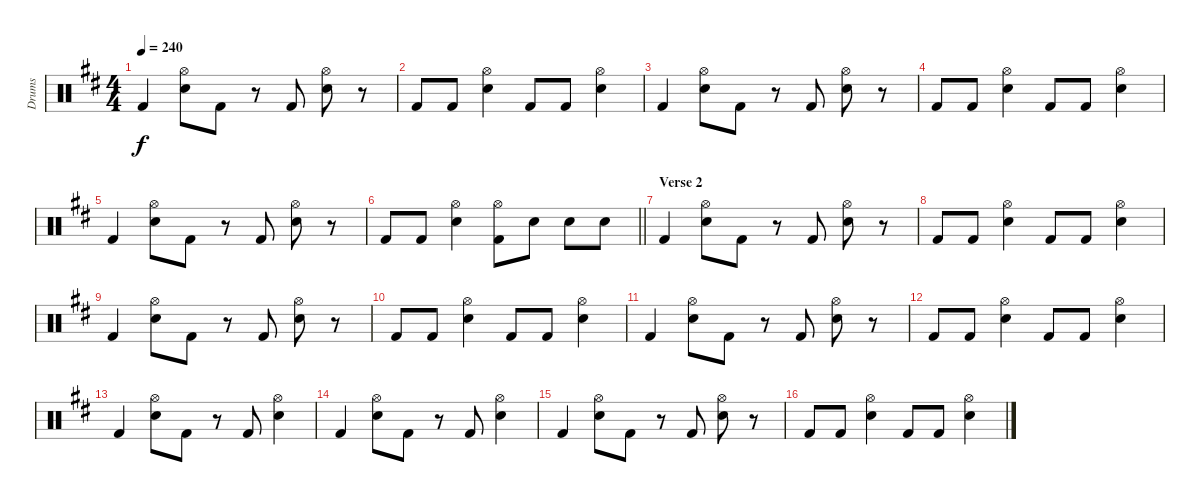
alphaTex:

\track ("Drums" "Drums") {instrument percussion}
\staff {score}
\articulation defaults
\ts (4 4)
\tempo 240
\clef neutral
\ks d "Kick (hit) 2".4{dy f}
("Hi-Hat (open)" "Electric Snare (hit)").8 "Kick (hit) 2".8 r.8 "Kick (hit) 2".8 ("Hi-Hat (open)" "Electric Snare (hit)").8 r.8 |
"Kick (hit) 2".8 "Kick (hit) 2".8 ("Hi-Hat (open)" "Electric Snare (hit)").4 "Kick (hit) 2".8 "Kick (hit) 2".8 ("Hi-Hat (open)" "Electric Snare (hit)").4 |
"Kick (hit) 2".4 ("Hi-Hat (open)" "Electric Snare (hit)").8 "Kick (hit) 2".8 r.8 "Kick (hit) 2".8 ("Hi-Hat (open)" "Electric Snare (hit)").8 r.8 |
"Kick (hit) 2".8 "Kick (hit) 2".8 ("Hi-Hat (open)" "Electric Snare (hit)").4 "Kick (hit) 2".8 "Kick (hit) 2".8 ("Hi-Hat (open)" "Electric Snare (hit)").4 |
"Kick (hit) 2".4 ("Hi-Hat (open)" "Electric Snare (hit)").8 "Kick (hit) 2".8 r.8 "Kick (hit) 2".8 ("Hi-Hat (open)" "Electric Snare (hit)").8 r.8 |
\barLineRight lightlight "Kick (hit) 2".8 "Kick (hit) 2".8
("Hi-Hat (open)" "Electric Snare (hit)").4 ("Hi-Hat (open)" "Kick (hit) 2").8 "Electric Snare (hit)".8 "Electric Snare (hit)".8 "Electric Snare (hit)".8 |
\section ("" "Verse 2")
"Kick (hit) 2".4 ("Hi-Hat (open)" "Electric Snare (hit)").8 "Kick (hit) 2".8 r.8 "Kick (hit) 2".8 ("Hi-Hat (open)" "Electric Snare (hit)").8 r.8 |
"Kick (hit) 2".8 "Kick (hit) 2".8 ("Hi-Hat (open)" "Electric Snare (hit)").4 "Kick (hit) 2".8 "Kick (hit) 2".8 ("Hi-Hat (open)" "Electric Snare (hit)").4 |
"Kick (hit) 2".4 ("Hi-Hat (open)" "Electric Snare (hit)").8 "Kick (hit) 2".8 r.8 "Kick (hit) 2".8 ("Hi-Hat (open)" "Electric Snare (hit)").8 r.8 |
"Kick (hit) 2".8 "Kick (hit) 2".8 ("Hi-Hat (open)" "Electric Snare (hit)").4 "Kick (hit) 2".8 "Kick (hit) 2".8 ("Hi-Hat (open)" "Electric Snare (hit)").4 |
"Kick (hit) 2".4 ("Hi-Hat (open)" "Electric Snare (hit)").8 "Kick (hit) 2".8 r.8 "Kick (hit) 2".8 ("Hi-Hat (open)" "Electric Snare (hit)").8 r.8 |
"Kick (hit) 2".8 "Kick (hit) 2".8 ("Hi-Hat (open)" "Electric Snare (hit)").4 "Kick (hit) 2".8 "Kick (hit) 2".8 ("Hi-Hat (open)" "Electric Snare (hit)").4 |
"Kick (hit) 2".4 ("Hi-Hat (open)" "Electric Snare (hit)").8 "Kick (hit) 2".8 r.8 "Kick (hit) 2".8 ("Hi-Hat (open)" "Electric Snare (hit)").4 |
"Kick (hit) 2".4 ("Hi-Hat (open)" "Electric Snare (hit)").8 "Kick (hit) 2".8 r.8 "Kick (hit) 2".8 ("Hi-Hat (open)" "Electric Snare (hit)").4 |
"Kick (hit) 2".4 ("Hi-Hat (open)" "Electric Snare (hit)").8 "Kick (hit) 2".8 r.8 "Kick (hit) 2".8 ("Hi-Hat (open)" "Electric Snare (hit)").8 r.8 |
"Kick (hit) 2".8 "Kick (hit) 2".8 ("Hi-Hat (open)" "Electric Snare (hit)").4 "Kick (hit) 2".8 "Kick (hit) 2".8 ("Hi-Hat (open)" "Electric Snare (hit)").4
